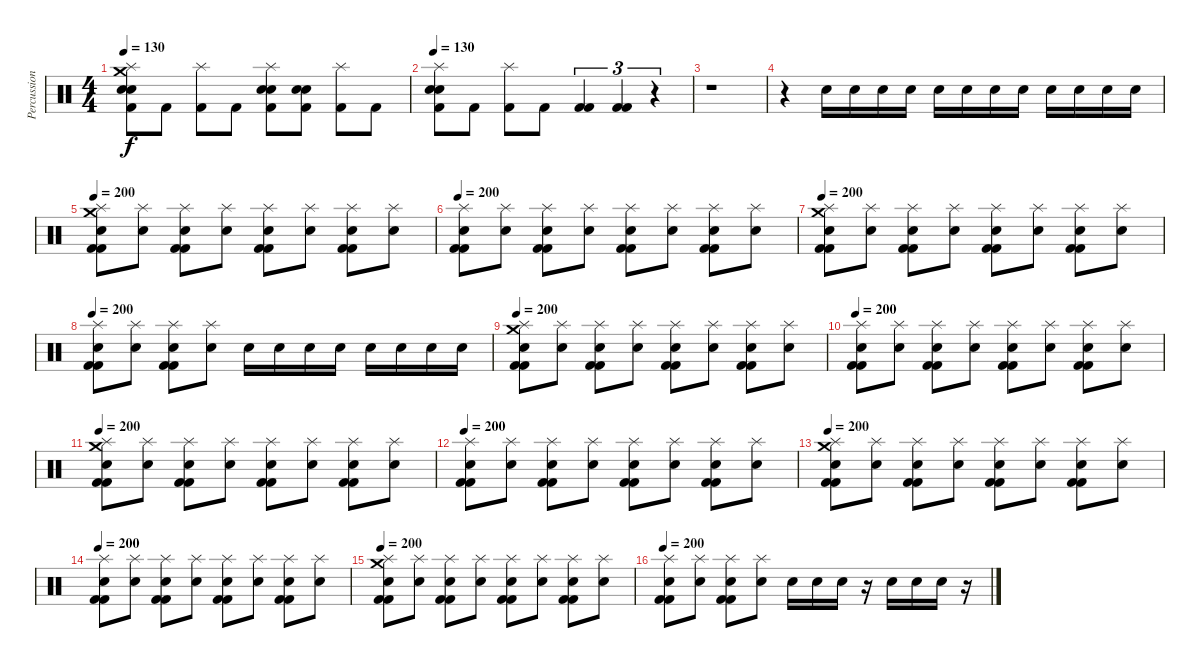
\track ("Percussions" "Percussion") {instrument percussion}
\staff {score}
\articulation defaults
\ts (4 4)
\tempo 130
\clef neutral
\ks c
("Kick (hit) 2" "Snare (hit) 2" "Snare (hit) 2" "Crash medium (hit)" "Splash (hit)").8{dy f} "Kick (hit) 2".8 ("Kick (hit) 2" "Splash (hit)").8 "Kick (hit) 2".8 ("Kick (hit) 2" "Snare (hit) 2" "Snare (hit) 2" "Splash (hit)").8 ("Kick (hit) 2" "Snare (hit) 2" "Snare (hit) 2").8 ("Kick (hit) 2" "Splash (hit)").8 "Kick (hit) 2".8 |
\tempo 130
("Kick (hit) 2" "Snare (hit) 2" "Snare (hit) 2" "Splash (hit)").8 "Kick (hit) 2".8 ("Kick (hit) 2" "Splash (hit)").8 "Kick (hit) 2".8 ("Kick (hit) 2" "Kick (hit) 2").4{tu (3 2)} ("Kick (hit) 2" "Kick (hit) 2").4{tu (3 2)} r.4{tu (3 2)} |
r.1 |
r.4 "Snare (hit) 2".16 "Snare (hit) 2".16 "Snare (hit) 2".16 "Snare (hit) 2".16 "Snare (hit) 2".16 "Snare (hit) 2".16 "Snare (hit) 2".16 "Snare (hit) 2".16 "Snare (hit) 2".16 "Snare (hit) 2".16 "Snare (hit) 2".16 "Snare (hit) 2".16 |
\tempo 200
("Kick (hit) 2" "Kick (hit) 2" "Snare (hit) 2" "Crash medium (hit)" "Splash (hit)").8 ("Snare (hit) 2" "Splash (hit)").8 ("Kick (hit) 2" "Kick (hit) 2" "Snare (hit) 2" "Splash (hit)").8 ("Snare (hit) 2" "Splash (hit)").8 ("Kick (hit) 2" "Kick (hit) 2" "Snare (hit) 2" "Splash (hit)").8 ("Snare (hit) 2" "Splash (hit)").8 ("Kick (hit) 2" "Kick (hit) 2" "Snare (hit) 2" "Splash (hit)").8 ("Snare (hit) 2" "Splash (hit)").8 |
\tempo 200
("Kick (hit) 2" "Kick (hit) 2" "Snare (hit) 2" "Splash (hit)").8 ("Snare (hit) 2" "Splash (hit)").8 ("Kick (hit) 2" "Kick (hit) 2" "Snare (hit) 2" "Splash (hit)").8 ("Snare (hit) 2" "Splash (hit)").8 ("Kick (hit) 2" "Kick (hit) 2" "Snare (hit) 2" "Splash (hit)").8 ("Snare (hit) 2" "Splash (hit)").8 ("Kick (hit) 2" "Kick (hit) 2" "Snare (hit) 2" "Splash (hit)").8 ("Snare (hit) 2" "Splash (hit)").8 |
\tempo 200
("Kick (hit) 2" "Kick (hit) 2" "Snare (hit) 2" "Crash medium (hit)" "Splash (hit)").8 ("Snare (hit) 2" "Splash (hit)").8 ("Kick (hit) 2" "Kick (hit) 2" "Snare (hit) 2" "Splash (hit)").8 ("Snare (hit) 2" "Splash (hit)").8 ("Kick (hit) 2" "Kick (hit) 2" "Snare (hit) 2" "Splash (hit)").8 ("Snare (hit) 2" "Splash (hit)").8 ("Kick (hit) 2" "Kick (hit) 2" "Snare (hit) 2" "Splash (hit)").8 ("Snare (hit) 2" "Splash (hit)").8 |
\tempo 200
("Kick (hit) 2" "Kick (hit) 2" "Snare (hit) 2" "Splash (hit)").8 ("Snare (hit) 2" "Splash (hit)").8 ("Kick (hit) 2" "Kick (hit) 2" "Snare (hit) 2" "Splash (hit)").8 ("Snare (hit) 2" "Splash (hit)").8 "Snare (hit) 2".16 "Snare (hit) 2".16 "Snare (hit) 2".16 "Snare (hit) 2".16 "Snare (hit) 2".16 "Snare (hit) 2".16 "Snare (hit) 2".16 "Snare (hit) 2".16 |
\tempo 200
("Kick (hit) 2" "Kick (hit) 2" "Snare (hit) 2" "Crash medium (hit)" "Splash (hit)").8 ("Snare (hit) 2" "Splash (hit)").8 ("Kick (hit) 2" "Kick (hit) 2" "Snare (hit) 2" "Splash (hit)").8 ("Snare (hit) 2" "Splash (hit)").8 ("Kick (hit) 2" "Kick (hit) 2" "Snare (hit) 2" "Splash (hit)").8 ("Snare (hit) 2" "Splash (hit)").8 ("Kick (hit) 2" "Kick (hit) 2" "Snare (hit) 2" "Splash (hit)").8 ("Snare (hit) 2" "Splash (hit)").8 |
\tempo 200
("Kick (hit) 2" "Kick (hit) 2" "Snare (hit) 2" "Splash (hit)").8 ("Snare (hit) 2" "Splash (hit)").8 ("Kick (hit) 2" "Kick (hit) 2" "Snare (hit) 2" "Splash (hit)").8 ("Snare (hit) 2" "Splash (hit)").8 ("Kick (hit) 2" "Kick (hit) 2" "Snare (hit) 2" "Splash (hit)").8 ("Snare (hit) 2" "Splash (hit)").8 ("Kick (hit) 2" "Kick (hit) 2" "Snare (hit) 2" "Splash (hit)").8 ("Snare (hit) 2" "Splash (hit)").8 |
\tempo 200
("Kick (hit) 2" "Kick (hit) 2" "Snare (hit) 2" "Crash medium (hit)" "Splash (hit)").8 ("Snare (hit) 2" "Splash (hit)").8 ("Kick (hit) 2" "Kick (hit) 2" "Snare (hit) 2" "Splash (hit)").8 ("Snare (hit) 2" "Splash (hit)").8 ("Kick (hit) 2" "Kick (hit) 2" "Snare (hit) 2" "Splash (hit)").8 ("Snare (hit) 2" "Splash (hit)").8 ("Kick (hit) 2" "Kick (hit) 2" "Snare (hit) 2" "Splash (hit)").8 ("Snare (hit) 2" "Splash (hit)").8 |
\tempo 200
("Kick (hit) 2" "Kick (hit) 2" "Snare (hit) 2" "Splash (hit)").8 ("Snare (hit) 2" "Splash (hit)").8 ("Kick (hit) 2" "Kick (hit) 2" "Snare (hit) 2" "Splash (hit)").8 ("Snare (hit) 2" "Splash (hit)").8 ("Kick (hit) 2" "Kick (hit) 2" "Snare (hit) 2" "Splash (hit)").8 ("Snare (hit) 2" "Splash (hit)").8 ("Kick (hit) 2" "Kick (hit) 2" "Snare (hit) 2" "Splash (hit)").8 ("Snare (hit) 2" "Splash (hit)").8 |
\tempo 200
("Kick (hit) 2" "Kick (hit) 2" "Snare (hit) 2" "Crash medium (hit)" "Splash (hit)").8 ("Snare (hit) 2" "Splash (hit)").8 ("Kick (hit) 2" "Kick (hit) 2" "Snare (hit) 2" "Splash (hit)").8 ("Snare (hit) 2" "Splash (hit)").8 ("Kick (hit) 2" "Kick (hit) 2" "Snare (hit) 2" "Splash (hit)").8 ("Snare (hit) 2" "Splash (hit)").8 ("Kick (hit) 2" "Kick (hit) 2" "Snare (hit) 2" "Splash (hit)").8 ("Snare (hit) 2" "Splash (hit)").8 |
\tempo 200
("Kick (hit) 2" "Kick (hit) 2" "Snare (hit) 2" "Splash (hit)").8 ("Snare (hit) 2" "Splash (hit)").8 ("Kick (hit) 2" "Kick (hit) 2" "Snare (hit) 2" "Splash (hit)").8 ("Snare (hit) 2" "Splash (hit)").8 ("Kick (hit) 2" "Kick (hit) 2" "Snare (hit) 2" "Splash (hit)").8 ("Snare (hit) 2" "Splash (hit)").8 ("Kick (hit) 2" "Kick (hit) 2" "Snare (hit) 2" "Splash (hit)").8 ("Snare (hit) 2" "Splash (hit)").8 |
\tempo 200
("Kick (hit) 2" "Kick (hit) 2" "Snare (hit) 2" "Crash medium (hit)" "Splash (hit)").8 ("Snare (hit) 2" "Splash (hit)").8 ("Kick (hit) 2" "Kick (hit) 2" "Snare (hit) 2" "Splash (hit)").8 ("Snare (hit) 2" "Splash (hit)").8 ("Kick (hit) 2" "Kick (hit) 2" "Snare (hit) 2" "Splash (hit)").8 ("Snare (hit) 2" "Splash (hit)").8 ("Kick (hit) 2" "Kick (hit) 2" "Snare (hit) 2" "Splash (hit)").8 ("Snare (hit) 2" "Splash (hit)").8 |
\tempo 200
("Kick (hit) 2" "Kick (hit) 2" "Snare (hit) 2" "Splash (hit)").8 ("Snare (hit) 2" "Splash (hit)").8 ("Kick (hit) 2" "Kick (hit) 2" "Snare (hit) 2" "Splash (hit)").8 ("Snare (hit) 2" "Splash (hit)").8 "Snare (hit) 2".16 "Snare (hit) 2".16 "Snare (hit) 2".16 r.16 "Snare (hit) 2".16 "Snare (hit) 2".16 "Snare (hit) 2".16 r.16
